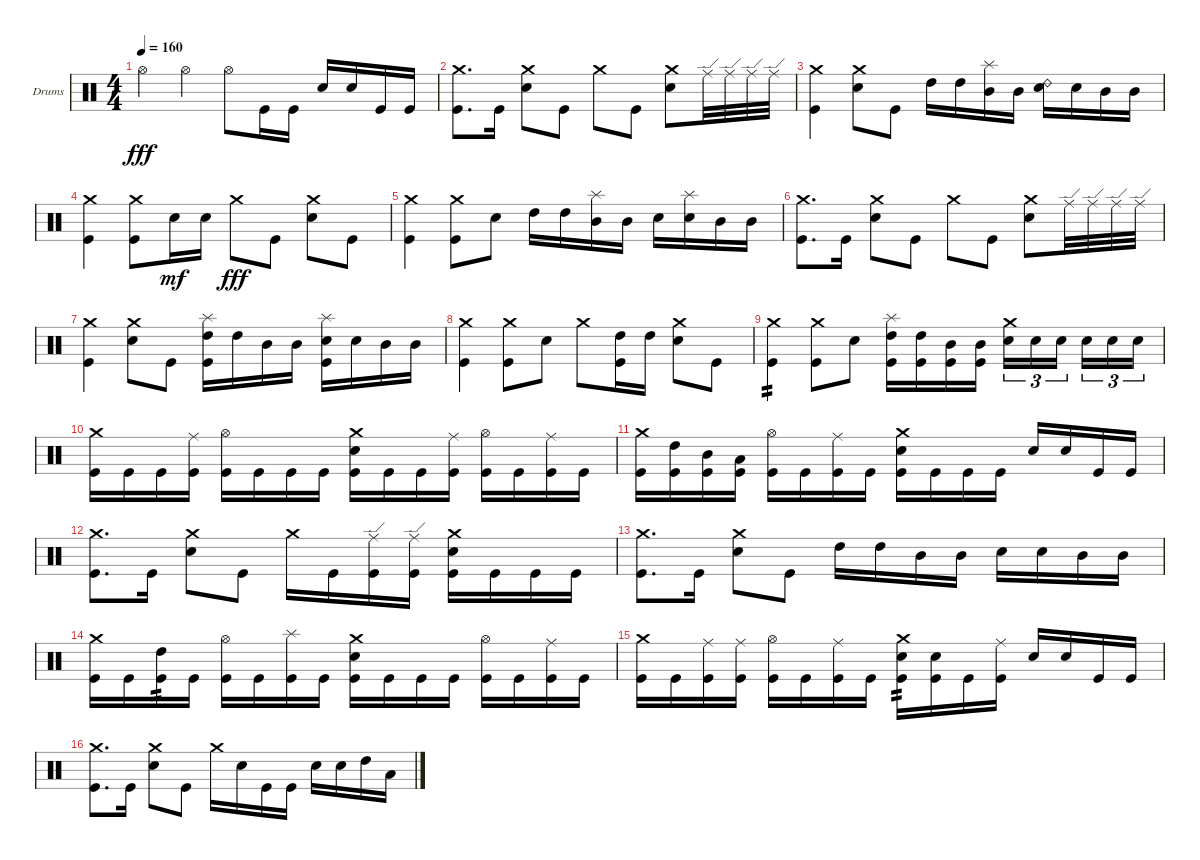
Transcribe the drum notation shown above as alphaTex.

\defaultSystemsLayout 4
\bracketExtendMode groupsimilarinstruments
\firstSystemTrackNameOrientation horizontal
\otherSystemsTrackNameOrientation horizontal
\track ("Nikita Korzhov" "Drums") {instrument percussion}
\staff {score}
\articulation defaults
\ts (4 4)
\tempo 160
\clef neutral
\scale
0.472222
\ks c "Hi-Hat (open)".4{dy fff} "Hi-Hat (open)".4 "Hi-Hat (open)".8 "Kick (hit)".16 "Kick (hit)".16 "Snare (hit) 2".16 "Snare (hit) 2".16 "Kick (hit)".16 "Kick (hit)".16
|
\scale
0.263889 ("Kick (hit)" "Crash medium (hit)").8{d} "Kick (hit)".16 ("Snare (hit) 2" "Crash medium (hit)").8 "Kick (hit)".8 "Crash medium (hit)".8 "Kick (hit)".8 ("Snare (hit) 2" "Crash medium (hit)").8 "Ride (edge)".32 "Ride (edge)".32 "Ride (edge)".32 "Ride (edge)".32 |
\scale
0.263889 ("Kick (hit)" "Crash medium (hit)").4 ("Snare (hit) 2" "Crash medium (hit)").8 "Kick (hit)".8 "High Tom (hit)".16 "High Tom (hit)".16 ("Mid Tom (hit)" "Splash (hit)").16 "Mid Tom (hit)".16 ("Snare (hit) 2" "Ride (bell) 2").16 "Snare (hit) 2".16 "Mid Tom (hit)".16 "Mid Tom (hit)".16 |
\scale
0.333333 ("Kick (hit)" "Crash medium (hit)").4 ("Kick (hit)" "Crash medium (hit)").8 "Snare (hit) 2".16{dy mf} "Snare (hit) 2".16 "Crash medium (hit)".8{dy fff} "Kick (hit)".8 ("Snare (hit) 2" "Crash medium (hit)").8 "Kick (hit)".8 |
\scale
0.333333 ("Kick (hit)" "Crash medium (hit)").4 ("Kick (hit)" "Crash medium (hit)").8 "Snare (hit) 2".8 "High Tom (hit)".16 "High Tom (hit)".16 ("Mid Tom (hit)" "Splash (hit)").16 "Mid Tom (hit)".16 "Snare (hit) 2".16 ("Snare (hit) 2" "Splash (hit)").16 "Mid Tom (hit)".16 "Mid Tom (hit)".16 |
\scale
0.333333 ("Kick (hit)" "Crash medium (hit)").8{d} "Kick (hit)".16 ("Snare (hit) 2" "Crash medium (hit)").8 "Kick (hit)".8 "Crash medium (hit)".8 "Kick (hit)".8 ("Snare (hit) 2" "Crash medium (hit)").8 "Ride (edge)".32 "Ride (edge)".32 "Ride (edge)".32 "Ride (edge)".32 |
\scale
0.333333 ("Kick (hit)" "Crash medium (hit)").4 ("Snare (hit) 2" "Crash medium (hit)").8 "Kick (hit)".8 ("High Tom (hit)" "Splash (hit)" "Kick (hit)").16 "High Tom (hit)".16 "Mid Tom (hit)".16 "Mid Tom (hit)".16 ("Snare (hit) 2" "Splash (hit)" "Kick (hit)").16 "Snare (hit) 2".16 "Mid Tom (hit)".16 "Mid Tom (hit)".16 |
\scale
0.333333 ("Kick (hit)" "Crash medium (hit)").4 ("Kick (hit)" "Crash medium (hit)").8 "Snare (hit) 2".8 "Crash medium (hit)".8 ("Kick (hit)" "High Tom (hit)").16 "High Tom (hit)".16 ("Snare (hit) 2" "Crash medium (hit)").8 "Kick (hit)".8 |
\scale
0.333333 ("Kick (hit)" "Crash medium (hit)").4{tp 2} ("Kick (hit)" "Crash medium (hit)").8 "Snare (hit) 2".8 ("High Tom (hit)" "Splash (hit)" "Kick (hit)").16 ("High Tom (hit)" "Kick (hit)").16 ("Mid Tom (hit)" "Kick (hit)").16 ("Mid Tom (hit)" "Kick (hit)").16 ("Snare (hit) 2" "Crash medium (hit)").16{tu (3 2)} "Snare (hit) 2".16{tu (3 2)} "Snare (hit) 2".16{tu (3 2)} "Snare (hit) 2".16{tu (3 2)} "Snare (hit) 2".16{tu (3 2)} "Snare (hit) 2".16{tu (3 2)} |
\scale
0.333333 ("Kick (hit)" "Crash medium (hit)").16 "Kick (hit)".16 "Kick (hit)".16 ("Kick (hit)" "Ride (middle)").16 ("Kick (hit)" "Hi-Hat (open)").16 "Kick (hit)".16 "Kick (hit)".16 "Kick (hit)".16 ("Kick (hit)" "Crash medium (hit)" "Snare (hit) 2").16 "Kick (hit)".16 "Kick (hit)".16 ("Kick (hit)" "Ride (middle)").16 ("Kick (hit)" "Hi-Hat (open)").16 "Kick (hit)".16 ("Kick (hit)" "Ride (middle)").16 "Kick (hit)".16 |
\scale
0.333333 ("Kick (hit)" "Crash medium (hit)").16 ("Kick (hit)" "High Tom (hit)").16 ("Kick (hit)" "Mid Tom (hit)").16 ("Kick (hit)" "Low Tom (hit)").16 ("Kick (hit)" "Hi-Hat (open)").16 "Kick (hit)".16 ("Kick (hit)" "Ride (middle)").16 "Kick (hit)".16 ("Kick (hit)" "Crash medium (hit)" "Snare (hit) 2").16 "Kick (hit)".16 "Kick (hit)".16 "Kick (hit)".16 "Snare (hit) 2".16 "Snare (hit) 2".16 "Kick (hit)".16 "Kick (hit)".16 |
\scale
0.333333 ("Kick (hit)" "Crash medium (hit)").8{d} "Kick (hit)".16 ("Snare (hit) 2" "Crash medium (hit)").8 "Kick (hit)".8 "Crash medium (hit)".16 "Kick (hit)".16 ("Kick (hit)" "Ride (edge)").16 ("Kick (hit)" "Ride (edge)").16 ("Snare (hit) 2" "Kick (hit)" "Crash medium (hit)").16 "Kick (hit)".16 "Kick (hit)".16 "Kick (hit)".16 |
\scale
0.333333 ("Kick (hit)" "Crash medium (hit)").8{d} "Kick (hit)".16 ("Snare (hit) 2" "Crash medium (hit)").8 "Kick (hit)".8 "High Tom (hit)".16 "High Tom (hit)".16 "Mid Tom (hit)".16 "Mid Tom (hit)".16 "Snare (hit) 2".16 "Snare (hit) 2".16 "Mid Tom (hit)".16 "Mid Tom (hit)".16 |
\scale
0.333333 ("Kick (hit)" "Crash medium (hit)").16 "Kick (hit)".16 ("Kick (hit)" "High Tom (hit)").16{tp 2} "Kick (hit)".16 ("Kick (hit)" "Hi-Hat (open)").16 "Kick (hit)".16 ("Kick (hit)" "Splash (hit)").16 "Kick (hit)".16 ("Kick (hit)" "Crash medium (hit)" "Snare (hit) 2").16 "Kick (hit)".16 "Kick (hit)".16 "Kick (hit)".16 ("Kick (hit)" "Hi-Hat (open)").16 "Kick (hit)".16 ("Kick (hit)" "Ride (middle)").16 "Kick (hit)".16 |
\scale
0.333333 ("Kick (hit)" "Crash medium (hit)").16 "Kick (hit)".16 ("Kick (hit)" "Ride (middle)").16 ("Kick (hit)" "Ride (middle)").16 ("Kick (hit)" "Hi-Hat (open)").16 "Kick (hit)".16 ("Kick (hit)" "Ride (middle)").16 "Kick (hit)".16 ("Kick (hit)" "Crash medium (hit)" "Snare (hit) 2").16{tp 2} ("Kick (hit)" "Snare (hit) 2").16 "Kick (hit)".16 ("Kick (hit)" "Ride (middle)").16 "Snare (hit) 2".16 "Snare (hit) 2".16 "Kick (hit)".16 "Kick (hit)".16 |
\scale
0.333333 ("Kick (hit)" "Crash medium (hit)").8{d} "Kick (hit)".16 ("Snare (hit) 2" "Crash medium (hit)").8 "Kick (hit)".8 "Crash medium (hit)".16 "Snare (hit) 2".16 "Kick (hit)".16 "Kick (hit)".16 "Snare (hit) 2".16 "Snare (hit) 2".16 "High Tom (hit)".16 "Low Tom (hit)".16
